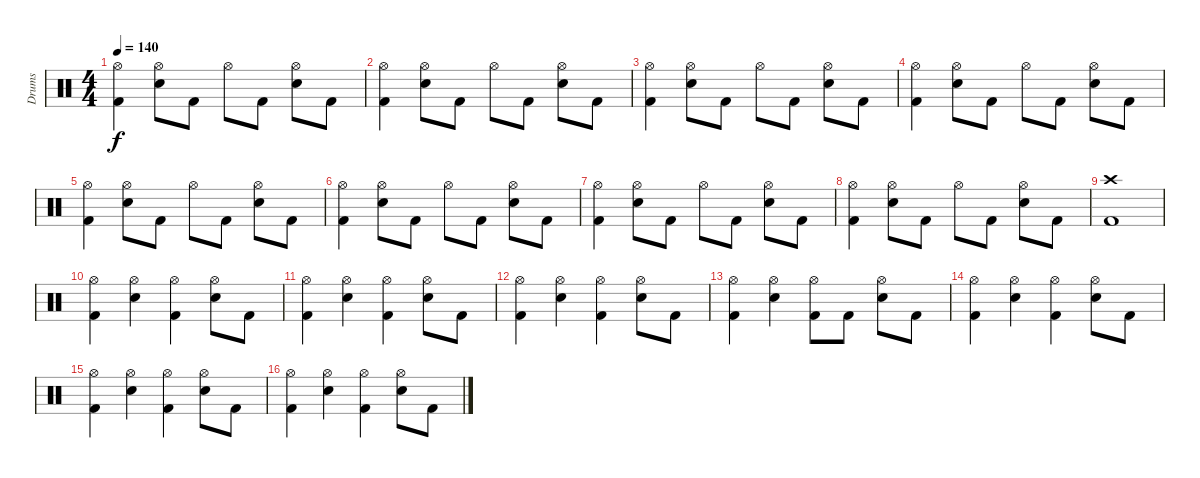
\track ("Drums" "Drums") {instrument percussion}
\staff {score}
\articulation defaults
\ts (4 4)
\tempo 140
\clef neutral
\ks c
("Hi-Hat (open)" "Kick (hit) 2").4{dy f} ("Hi-Hat (open)" "Electric Snare (hit)").8 "Kick (hit) 2".8 "Hi-Hat (open)".8 "Kick (hit) 2".8 ("Hi-Hat (open)" "Electric Snare (hit)").8 "Kick (hit) 2".8 |
("Hi-Hat (open)" "Kick (hit) 2").4 ("Hi-Hat (open)" "Electric Snare (hit)").8 "Kick (hit) 2".8 "Hi-Hat (open)".8 "Kick (hit) 2".8 ("Hi-Hat (open)" "Electric Snare (hit)").8 "Kick (hit) 2".8 |
("Hi-Hat (open)" "Kick (hit) 2").4 ("Hi-Hat (open)" "Electric Snare (hit)").8 "Kick (hit) 2".8 "Hi-Hat (open)".8 "Kick (hit) 2".8 ("Hi-Hat (open)" "Electric Snare (hit)").8 "Kick (hit) 2".8 |
("Hi-Hat (open)" "Kick (hit) 2").4 ("Hi-Hat (open)" "Electric Snare (hit)").8 "Kick (hit) 2".8 "Hi-Hat (open)".8 "Kick (hit) 2".8 ("Hi-Hat (open)" "Electric Snare (hit)").8 "Kick (hit) 2".8 |
("Hi-Hat (open)" "Kick (hit) 2").4 ("Hi-Hat (open)" "Electric Snare (hit)").8 "Kick (hit) 2".8 "Hi-Hat (open)".8 "Kick (hit) 2".8 ("Hi-Hat (open)" "Electric Snare (hit)").8 "Kick (hit) 2".8 |
("Hi-Hat (open)" "Kick (hit) 2").4 ("Hi-Hat (open)" "Electric Snare (hit)").8 "Kick (hit) 2".8 "Hi-Hat (open)".8 "Kick (hit) 2".8 ("Hi-Hat (open)" "Electric Snare (hit)").8 "Kick (hit) 2".8 |
("Hi-Hat (open)" "Kick (hit) 2").4 ("Hi-Hat (open)" "Electric Snare (hit)").8 "Kick (hit) 2".8 "Hi-Hat (open)".8 "Kick (hit) 2".8 ("Hi-Hat (open)" "Electric Snare (hit)").8 "Kick (hit) 2".8 |
("Hi-Hat (open)" "Kick (hit) 2").4 ("Hi-Hat (open)" "Electric Snare (hit)").8 "Kick (hit) 2".8 "Hi-Hat (open)".8 "Kick (hit) 2".8 ("Hi-Hat (open)" "Electric Snare (hit)").8 "Kick (hit) 2".8 |
("Crash high (hit)" "Kick (hit) 2").1 |
("Hi-Hat (open)" "Kick (hit) 2").4 ("Hi-Hat (open)" "Electric Snare (hit)").4 ("Hi-Hat (open)" "Kick (hit) 2").4 ("Hi-Hat (open)" "Electric Snare (hit)").8 "Kick (hit) 2".8 |
("Hi-Hat (open)" "Kick (hit) 2").4 ("Hi-Hat (open)" "Electric Snare (hit)").4 ("Hi-Hat (open)" "Kick (hit) 2").4 ("Hi-Hat (open)" "Electric Snare (hit)").8 "Kick (hit) 2".8 |
("Hi-Hat (open)" "Kick (hit) 2").4 ("Hi-Hat (open)" "Electric Snare (hit)").4 ("Hi-Hat (open)" "Kick (hit) 2").4 ("Hi-Hat (open)" "Electric Snare (hit)").8 "Kick (hit) 2".8 |
("Hi-Hat (open)" "Kick (hit) 2").4 ("Hi-Hat (open)" "Electric Snare (hit)").4 ("Hi-Hat (open)" "Kick (hit) 2").8 "Kick (hit) 2".8 ("Hi-Hat (open)" "Electric Snare (hit)").8 "Kick (hit) 2".8 |
("Hi-Hat (open)" "Kick (hit) 2").4 ("Hi-Hat (open)" "Electric Snare (hit)").4 ("Hi-Hat (open)" "Kick (hit) 2").4 ("Hi-Hat (open)" "Electric Snare (hit)").8 "Kick (hit) 2".8 |
("Hi-Hat (open)" "Kick (hit) 2").4 ("Hi-Hat (open)" "Electric Snare (hit)").4 ("Hi-Hat (open)" "Kick (hit) 2").4 ("Hi-Hat (open)" "Electric Snare (hit)").8 "Kick (hit) 2".8 |
("Hi-Hat (open)" "Kick (hit) 2").4 ("Hi-Hat (open)" "Electric Snare (hit)").4 ("Hi-Hat (open)" "Kick (hit) 2").4 ("Hi-Hat (open)" "Electric Snare (hit)").8 "Kick (hit) 2".8
